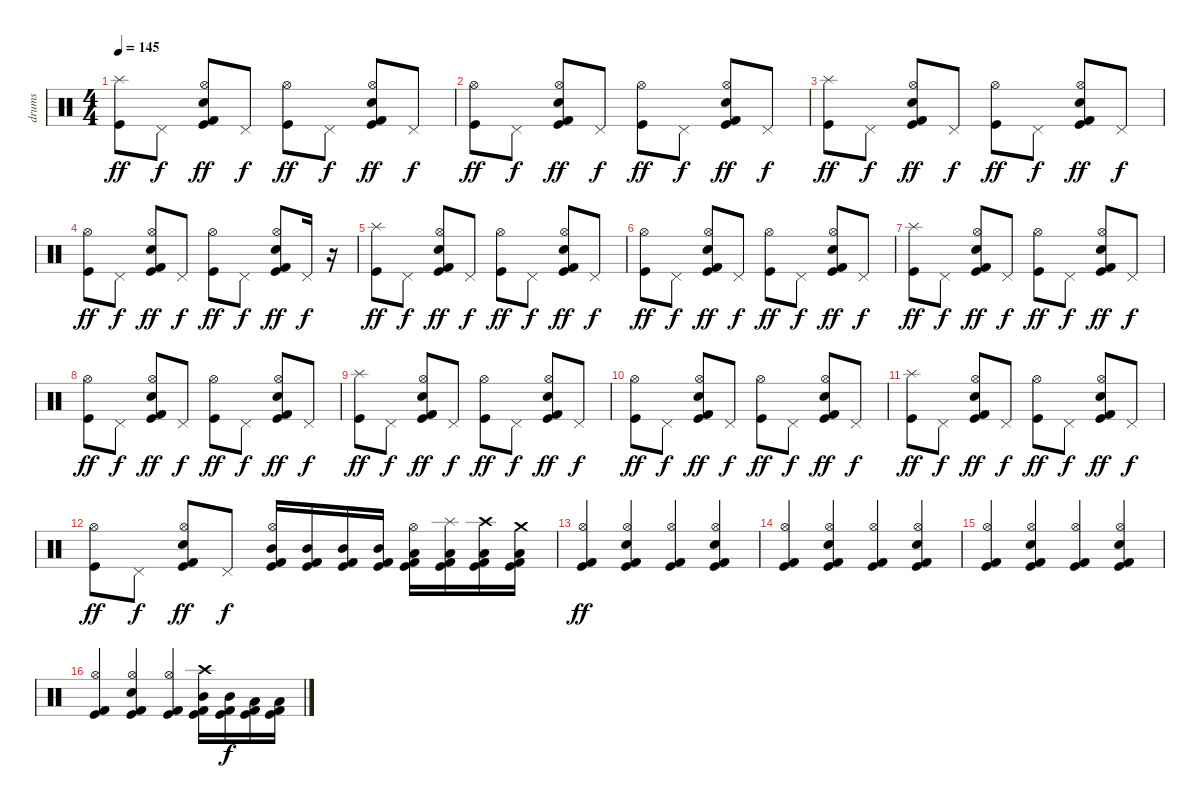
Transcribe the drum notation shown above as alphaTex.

\track ("drums" "drums") {instrument percussion}
\staff {score}
\articulation defaults
\ts (4 4)
\tempo 145
\clef neutral
\ks c
("Splash (hit)" "Kick (hit)").8{dy ff} "Pedal Hi-Hat (hit)".8{dy f} ("Hi-Hat (open)" "Electric Snare (hit)" "Kick (hit) 2" "Kick (hit)").8{dy ff} "Pedal Hi-Hat (hit)".8{dy f} ("Hi-Hat (open)" "Kick (hit)").8{dy ff} "Pedal Hi-Hat (hit)".8{dy f} ("Hi-Hat (open)" "Electric Snare (hit)" "Kick (hit) 2" "Kick (hit)").8{dy ff} "Pedal Hi-Hat (hit)".8{dy f} |
("Hi-Hat (open)" "Kick (hit)").8{dy ff} "Pedal Hi-Hat (hit)".8{dy f} ("Hi-Hat (open)" "Electric Snare (hit)" "Kick (hit) 2" "Kick (hit)").8{dy ff} "Pedal Hi-Hat (hit)".8{dy f} ("Hi-Hat (open)" "Kick (hit)").8{dy ff} "Pedal Hi-Hat (hit)".8{dy f} ("Hi-Hat (open)" "Electric Snare (hit)" "Kick (hit) 2" "Kick (hit)").8{dy ff} "Pedal Hi-Hat (hit)".8{dy f} |
("Splash (hit)" "Kick (hit)").8{dy ff} "Pedal Hi-Hat (hit)".8{dy f} ("Hi-Hat (open)" "Electric Snare (hit)" "Kick (hit) 2" "Kick (hit)").8{dy ff} "Pedal Hi-Hat (hit)".8{dy f} ("Hi-Hat (open)" "Kick (hit)").8{dy ff} "Pedal Hi-Hat (hit)".8{dy f} ("Hi-Hat (open)" "Electric Snare (hit)" "Kick (hit) 2" "Kick (hit)").8{dy ff} "Pedal Hi-Hat (hit)".8{dy f} |
("Hi-Hat (open)" "Kick (hit)").8{dy ff} "Pedal Hi-Hat (hit)".8{dy f} ("Hi-Hat (open)" "Electric Snare (hit)" "Kick (hit) 2" "Kick (hit)").8{dy ff} "Pedal Hi-Hat (hit)".8{dy f} ("Hi-Hat (open)" "Kick (hit)").8{dy ff} "Pedal Hi-Hat (hit)".8{dy f} ("Hi-Hat (open)" "Electric Snare (hit)" "Kick (hit) 2" "Kick (hit)").8{dy ff} "Pedal Hi-Hat (hit)".16{dy f} r.16 |
("Splash (hit)" "Kick (hit)").8{dy ff} "Pedal Hi-Hat (hit)".8{dy f} ("Hi-Hat (open)" "Electric Snare (hit)" "Kick (hit) 2" "Kick (hit)").8{dy ff} "Pedal Hi-Hat (hit)".8{dy f} ("Hi-Hat (open)" "Kick (hit)").8{dy ff} "Pedal Hi-Hat (hit)".8{dy f} ("Hi-Hat (open)" "Electric Snare (hit)" "Kick (hit) 2" "Kick (hit)").8{dy ff} "Pedal Hi-Hat (hit)".8{dy f} |
("Hi-Hat (open)" "Kick (hit)").8{dy ff} "Pedal Hi-Hat (hit)".8{dy f} ("Hi-Hat (open)" "Electric Snare (hit)" "Kick (hit) 2" "Kick (hit)").8{dy ff} "Pedal Hi-Hat (hit)".8{dy f} ("Hi-Hat (open)" "Kick (hit)").8{dy ff} "Pedal Hi-Hat (hit)".8{dy f} ("Hi-Hat (open)" "Electric Snare (hit)" "Kick (hit) 2" "Kick (hit)").8{dy ff} "Pedal Hi-Hat (hit)".8{dy f} |
("Splash (hit)" "Kick (hit)").8{dy ff} "Pedal Hi-Hat (hit)".8{dy f} ("Hi-Hat (open)" "Electric Snare (hit)" "Kick (hit) 2" "Kick (hit)").8{dy ff} "Pedal Hi-Hat (hit)".8{dy f} ("Hi-Hat (open)" "Kick (hit)").8{dy ff} "Pedal Hi-Hat (hit)".8{dy f} ("Hi-Hat (open)" "Electric Snare (hit)" "Kick (hit) 2" "Kick (hit)").8{dy ff} "Pedal Hi-Hat (hit)".8{dy f} |
("Hi-Hat (open)" "Kick (hit)").8{dy ff} "Pedal Hi-Hat (hit)".8{dy f} ("Hi-Hat (open)" "Electric Snare (hit)" "Kick (hit) 2" "Kick (hit)").8{dy ff} "Pedal Hi-Hat (hit)".8{dy f} ("Hi-Hat (open)" "Kick (hit)").8{dy ff} "Pedal Hi-Hat (hit)".8{dy f} ("Hi-Hat (open)" "Electric Snare (hit)" "Kick (hit) 2" "Kick (hit)").8{dy ff} "Pedal Hi-Hat (hit)".8{dy f} |
("Splash (hit)" "Kick (hit)").8{dy ff} "Pedal Hi-Hat (hit)".8{dy f} ("Hi-Hat (open)" "Electric Snare (hit)" "Kick (hit) 2" "Kick (hit)").8{dy ff} "Pedal Hi-Hat (hit)".8{dy f} ("Hi-Hat (open)" "Kick (hit)").8{dy ff} "Pedal Hi-Hat (hit)".8{dy f} ("Hi-Hat (open)" "Electric Snare (hit)" "Kick (hit) 2" "Kick (hit)").8{dy ff} "Pedal Hi-Hat (hit)".8{dy f} |
("Hi-Hat (open)" "Kick (hit)").8{dy ff} "Pedal Hi-Hat (hit)".8{dy f} ("Hi-Hat (open)" "Electric Snare (hit)" "Kick (hit) 2" "Kick (hit)").8{dy ff} "Pedal Hi-Hat (hit)".8{dy f} ("Hi-Hat (open)" "Kick (hit)").8{dy ff} "Pedal Hi-Hat (hit)".8{dy f} ("Hi-Hat (open)" "Electric Snare (hit)" "Kick (hit) 2" "Kick (hit)").8{dy ff} "Pedal Hi-Hat (hit)".8{dy f} |
("Splash (hit)" "Kick (hit)").8{dy ff} "Pedal Hi-Hat (hit)".8{dy f} ("Hi-Hat (open)" "Electric Snare (hit)" "Kick (hit) 2" "Kick (hit)").8{dy ff} "Pedal Hi-Hat (hit)".8{dy f} ("Hi-Hat (open)" "Kick (hit)").8{dy ff} "Pedal Hi-Hat (hit)".8{dy f} ("Hi-Hat (open)" "Electric Snare (hit)" "Kick (hit) 2" "Kick (hit)").8{dy ff} "Pedal Hi-Hat (hit)".8{dy f} |
("Hi-Hat (open)" "Kick (hit)").8{dy ff} "Pedal Hi-Hat (hit)".8{dy f} ("Hi-Hat (open)" "Electric Snare (hit)" "Kick (hit) 2" "Kick (hit)").8{dy ff} "Pedal Hi-Hat (hit)".8{dy f} ("Hi-Hat (open)" "Mid Tom (hit)" "Kick (hit) 2" "Kick (hit)").16 ("Mid Tom (hit)" "Kick (hit) 2" "Kick (hit)").16 ("Mid Tom (hit)" "Kick (hit) 2" "Kick (hit)").16 ("Mid Tom (hit)" "Kick (hit) 2" "Kick (hit)").16 ("Hi-Hat (open)" "Low Floor Tom (hit)" "Kick (hit) 2" "Kick (hit)").16 ("Splash (hit)" "Low Floor Tom (hit)" "Kick (hit) 2" "Kick (hit)").16 ("Crash high (hit)" "Low Floor Tom (hit)" "Kick (hit) 2" "Kick (hit)").16 ("Crash medium (hit)" "Low Floor Tom (hit)" "Kick (hit) 2" "Kick (hit)").16 |
("Hi-Hat (open)" "Kick (hit) 2" "Kick (hit)").4{dy ff} ("Hi-Hat (open)" "Electric Snare (hit)" "Kick (hit) 2" "Kick (hit)").4 ("Hi-Hat (open)" "Kick (hit) 2" "Kick (hit)").4 ("Hi-Hat (open)" "Electric Snare (hit)" "Kick (hit) 2" "Kick (hit)").4 |
("Hi-Hat (open)" "Kick (hit) 2" "Kick (hit)").4 ("Hi-Hat (open)" "Electric Snare (hit)" "Kick (hit) 2" "Kick (hit)").4 ("Hi-Hat (open)" "Kick (hit) 2" "Kick (hit)").4 ("Hi-Hat (open)" "Electric Snare (hit)" "Kick (hit) 2" "Kick (hit)").4 |
("Hi-Hat (open)" "Kick (hit) 2" "Kick (hit)").4 ("Hi-Hat (open)" "Electric Snare (hit)" "Kick (hit) 2" "Kick (hit)").4 ("Hi-Hat (open)" "Kick (hit) 2" "Kick (hit)").4 ("Hi-Hat (open)" "Electric Snare (hit)" "Kick (hit) 2" "Kick (hit)").4 |
("Hi-Hat (open)" "Kick (hit) 2" "Kick (hit)").4 ("Hi-Hat (open)" "Electric Snare (hit)" "Kick (hit) 2" "Kick (hit)").4 ("Hi-Hat (open)" "Kick (hit) 2" "Kick (hit)").4 ("Crash high (hit)" "Mid Tom (hit)" "Kick (hit) 2" "Kick (hit)").16 ("Mid Tom (hit)" "Kick (hit) 2" "Kick (hit)").16{dy f} ("Low Floor Tom (hit)" "Kick (hit) 2" "Kick (hit)").16 ("Low Floor Tom (hit)" "Kick (hit) 2" "Kick (hit)").16
